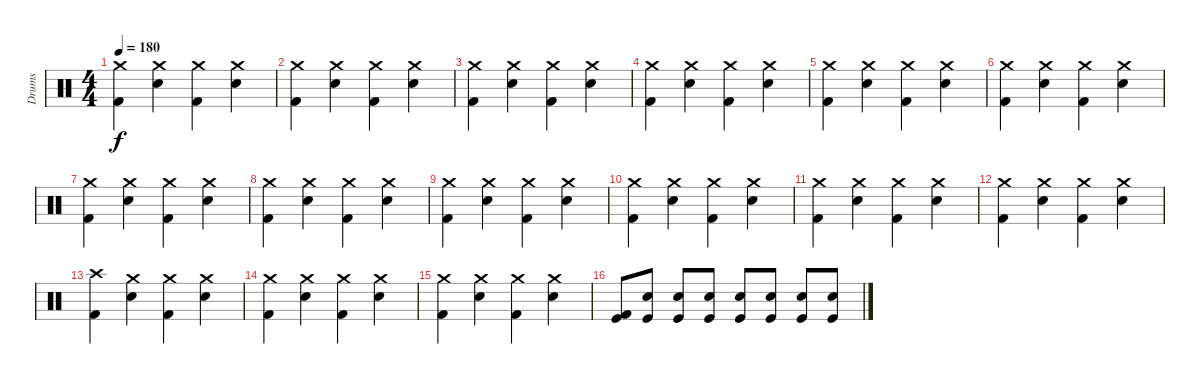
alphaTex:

\track ("Drums" "Drums") {instrument percussion}
\staff {score}
\articulation defaults
\ts (4 4)
\tempo 180
\clef neutral
\ks c
("Crash medium (hit)" "Kick (hit) 2").4{dy f} ("Crash medium (hit)" "Snare (hit) 2").4 ("Crash medium (hit)" "Kick (hit) 2").4 ("Crash medium (hit)" "Snare (hit) 2").4 |
("Crash medium (hit)" "Kick (hit) 2").4 ("Crash medium (hit)" "Snare (hit) 2").4 ("Crash medium (hit)" "Kick (hit) 2").4 ("Crash medium (hit)" "Snare (hit) 2").4 |
("Crash medium (hit)" "Kick (hit) 2").4 ("Crash medium (hit)" "Snare (hit) 2").4 ("Crash medium (hit)" "Kick (hit) 2").4 ("Crash medium (hit)" "Snare (hit) 2").4 |
("Crash medium (hit)" "Kick (hit) 2").4 ("Crash medium (hit)" "Snare (hit) 2").4 ("Crash medium (hit)" "Kick (hit) 2").4 ("Crash medium (hit)" "Snare (hit) 2").4 |
("Crash medium (hit)" "Kick (hit) 2").4 ("Crash medium (hit)" "Snare (hit) 2").4 ("Crash medium (hit)" "Kick (hit) 2").4 ("Crash medium (hit)" "Snare (hit) 2").4 |
("Crash medium (hit)" "Kick (hit) 2").4 ("Crash medium (hit)" "Snare (hit) 2").4 ("Crash medium (hit)" "Kick (hit) 2").4 ("Crash medium (hit)" "Snare (hit) 2").4 |
("Crash medium (hit)" "Kick (hit) 2").4 ("Crash medium (hit)" "Snare (hit) 2").4 ("Crash medium (hit)" "Kick (hit) 2").4 ("Crash medium (hit)" "Snare (hit) 2").4 |
("Crash medium (hit)" "Kick (hit) 2").4 ("Crash medium (hit)" "Snare (hit) 2").4 ("Crash medium (hit)" "Kick (hit) 2").4 ("Crash medium (hit)" "Snare (hit) 2").4 |
("Crash medium (hit)" "Kick (hit) 2").4 ("Crash medium (hit)" "Snare (hit) 2").4 ("Crash medium (hit)" "Kick (hit) 2").4 ("Crash medium (hit)" "Snare (hit) 2").4 |
("Crash medium (hit)" "Kick (hit) 2").4 ("Crash medium (hit)" "Snare (hit) 2").4 ("Crash medium (hit)" "Kick (hit) 2").4 ("Crash medium (hit)" "Snare (hit) 2").4 |
("Crash medium (hit)" "Kick (hit) 2").4 ("Crash medium (hit)" "Snare (hit) 2").4 ("Crash medium (hit)" "Kick (hit) 2").4 ("Crash medium (hit)" "Snare (hit) 2").4 |
("Crash medium (hit)" "Kick (hit) 2").4 ("Crash medium (hit)" "Snare (hit) 2").4 ("Crash medium (hit)" "Kick (hit) 2").4 ("Crash medium (hit)" "Snare (hit) 2").4 |
("Crash high (hit)" "Kick (hit) 2").4 ("Crash medium (hit)" "Snare (hit) 2").4 ("Crash medium (hit)" "Kick (hit) 2").4 ("Crash medium (hit)" "Snare (hit) 2").4 |
("Crash medium (hit)" "Kick (hit) 2").4 ("Crash medium (hit)" "Snare (hit) 2").4 ("Crash medium (hit)" "Kick (hit) 2").4 ("Crash medium (hit)" "Snare (hit) 2").4 |
("Crash medium (hit)" "Kick (hit) 2").4 ("Crash medium (hit)" "Snare (hit) 2").4 ("Crash medium (hit)" "Kick (hit) 2").4 ("Crash medium (hit)" "Snare (hit) 2").4 |
("Kick (hit)" "Kick (hit) 2").8 ("Kick (hit)" "Snare (hit) 2").8 ("Kick (hit)" "Snare (hit) 2").8 ("Kick (hit)" "Snare (hit) 2").8 ("Kick (hit)" "Snare (hit) 2").8 ("Kick (hit)" "Snare (hit) 2").8 ("Kick (hit)" "Snare (hit) 2").8 ("Kick (hit)" "Snare (hit) 2").8
